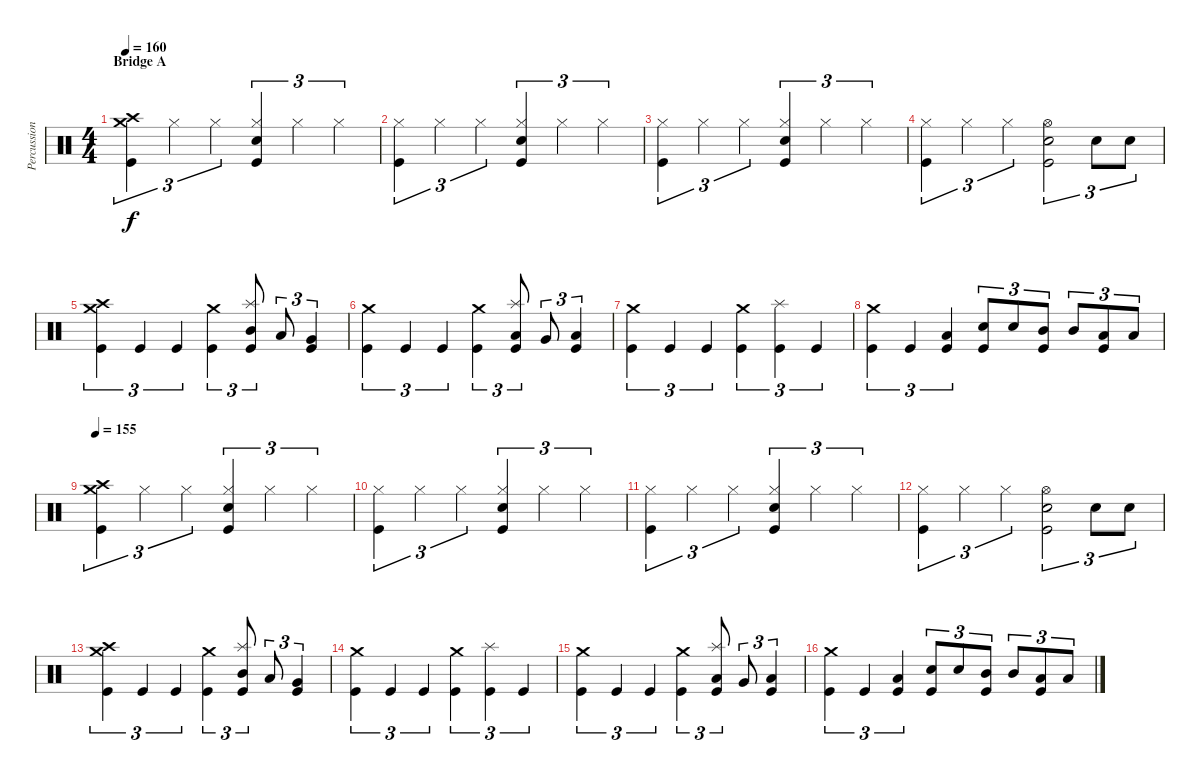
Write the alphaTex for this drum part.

\track ("Percussion" "Percussion") {instrument percussion}
\staff {score}
\articulation defaults
\ts (4 4)
\section ("" "Bridge A")
\tempo 160
\clef neutral
\ks c
("Crash high (hit)" "Crash medium (hit)" "Kick (hit)").4{tu (3 2) dy f} "Hi-Hat (closed)".4{tu (3 2)} "Hi-Hat (closed)".4{tu (3 2)} ("Hi-Hat (closed)" "Electric Snare (hit)" "Kick (hit)").4{tu (3 2)} "Hi-Hat (closed)".4{tu (3 2)} "Hi-Hat (closed)".4{tu (3 2)} |
("Hi-Hat (closed)" "Kick (hit)").4{tu (3 2)} "Hi-Hat (closed)".4{tu (3 2)} "Hi-Hat (closed)".4{tu (3 2)} ("Hi-Hat (closed)" "Electric Snare (hit)" "Kick (hit)").4{tu (3 2)} "Hi-Hat (closed)".4{tu (3 2)} "Hi-Hat (closed)".4{tu (3 2)} |
("Hi-Hat (closed)" "Kick (hit)").4{tu (3 2)} "Hi-Hat (closed)".4{tu (3 2)} "Hi-Hat (closed)".4{tu (3 2)} ("Hi-Hat (closed)" "Electric Snare (hit)" "Kick (hit)").4{tu (3 2)} "Hi-Hat (closed)".4{tu (3 2)} "Hi-Hat (closed)".4{tu (3 2)} |
("Hi-Hat (closed)" "Kick (hit)").4{tu (3 2)} "Hi-Hat (closed)".4{tu (3 2)} "Hi-Hat (closed)".4{tu (3 2)} ("Hi-Hat (open)" "Electric Snare (hit)" "Kick (hit)").2{tu (3 2)} "Electric Snare (hit)".8{tu (3 2)} "Electric Snare (hit)".8{tu (3 2)} |
("Crash high (hit)" "Crash medium (hit)" "Kick (hit)").4{tu (3 2)} "Kick (hit)".4{tu (3 2)} "Kick (hit)".4{tu (3 2)} ("Crash medium (hit)" "Kick (hit)").4{tu (3 2)} ("Splash (hit)" "Mid Tom (hit)" "Kick (hit)").8{tu (3 2)} "Low Tom (hit)".8{tu (3 2)} ("Very Low Tom (hit)" "Kick (hit)").4{tu (3 2)} |
("Crash medium (hit)" "Kick (hit)").4{tu (3 2)} "Kick (hit)".4{tu (3 2)} "Kick (hit)".4{tu (3 2)} ("Crash medium (hit)" "Kick (hit)").4{tu (3 2)} ("Splash (hit)" "Low Tom (hit)" "Kick (hit)").8{tu (3 2)} "Very Low Tom (hit)".8{tu (3 2)} ("Low Floor Tom (hit)" "Kick (hit)").4{tu (3 2)} |
("Crash medium (hit)" "Kick (hit)").4{tu (3 2)} "Kick (hit)".4{tu (3 2)} "Kick (hit)".4{tu (3 2)} ("Crash medium (hit)" "Kick (hit)").4{tu (3 2)} ("Splash (hit)" "Kick (hit)").4{tu (3 2)} "Kick (hit)".4{tu (3 2)} |
("Crash medium (hit)" "Kick (hit)").4{tu (3 2)} "Kick (hit)".4{tu (3 2)} ("Low Tom (hit)" "Kick (hit)").4{tu (3 2)} ("Electric Snare (hit)" "Kick (hit)").8{tu (3 2)} "Electric Snare (hit)".8{tu (3 2)} ("Mid Tom (hit)" "Kick (hit)").8{tu (3 2)} "Mid Tom (hit)".8{tu (3 2)} ("Low Tom (hit)" "Kick (hit)").8{tu (3 2)} "Low Tom (hit)".8{tu (3 2)} |
\tempo 155
("Crash high (hit)" "Crash medium (hit)" "Kick (hit)").4{tu (3 2)} "Hi-Hat (closed)".4{tu (3 2)} "Hi-Hat (closed)".4{tu (3 2)} ("Hi-Hat (closed)" "Electric Snare (hit)" "Kick (hit)").4{tu (3 2)} "Hi-Hat (closed)".4{tu (3 2)} "Hi-Hat (closed)".4{tu (3 2)} |
("Hi-Hat (closed)" "Kick (hit)").4{tu (3 2)} "Hi-Hat (closed)".4{tu (3 2)} "Hi-Hat (closed)".4{tu (3 2)} ("Hi-Hat (closed)" "Electric Snare (hit)" "Kick (hit)").4{tu (3 2)} "Hi-Hat (closed)".4{tu (3 2)} "Hi-Hat (closed)".4{tu (3 2)} |
("Hi-Hat (closed)" "Kick (hit)").4{tu (3 2)} "Hi-Hat (closed)".4{tu (3 2)} "Hi-Hat (closed)".4{tu (3 2)} ("Hi-Hat (closed)" "Electric Snare (hit)" "Kick (hit)").4{tu (3 2)} "Hi-Hat (closed)".4{tu (3 2)} "Hi-Hat (closed)".4{tu (3 2)} |
("Hi-Hat (closed)" "Kick (hit)").4{tu (3 2)} "Hi-Hat (closed)".4{tu (3 2)} "Hi-Hat (closed)".4{tu (3 2)} ("Hi-Hat (open)" "Electric Snare (hit)" "Kick (hit)").2{tu (3 2)} "Electric Snare (hit)".8{tu (3 2)} "Electric Snare (hit)".8{tu (3 2)} |
("Crash high (hit)" "Crash medium (hit)" "Kick (hit)").4{tu (3 2)} "Kick (hit)".4{tu (3 2)} "Kick (hit)".4{tu (3 2)} ("Crash medium (hit)" "Kick (hit)").4{tu (3 2)} ("Splash (hit)" "Mid Tom (hit)" "Kick (hit)").8{tu (3 2)} "Low Tom (hit)".8{tu (3 2)} ("Very Low Tom (hit)" "Kick (hit)").4{tu (3 2)} |
("Crash medium (hit)" "Kick (hit)").4{tu (3 2)} "Kick (hit)".4{tu (3 2)} "Kick (hit)".4{tu (3 2)} ("Crash medium (hit)" "Kick (hit)").4{tu (3 2)} ("Splash (hit)" "Kick (hit)").4{tu (3 2)} "Kick (hit)".4{tu (3 2)} |
("Crash medium (hit)" "Kick (hit)").4{tu (3 2)} "Kick (hit)".4{tu (3 2)} "Kick (hit)".4{tu (3 2)} ("Crash medium (hit)" "Kick (hit)").4{tu (3 2)} ("Splash (hit)" "Low Tom (hit)" "Kick (hit)").8{tu (3 2)} "Very Low Tom (hit)".8{tu (3 2)} ("Low Floor Tom (hit)" "Kick (hit)").4{tu (3 2)} |
("Crash medium (hit)" "Kick (hit)").4{tu (3 2)} "Kick (hit)".4{tu (3 2)} ("Low Tom (hit)" "Kick (hit)").4{tu (3 2)} ("Electric Snare (hit)" "Kick (hit)").8{tu (3 2)} "Electric Snare (hit)".8{tu (3 2)} ("Mid Tom (hit)" "Kick (hit)").8{tu (3 2)} "Mid Tom (hit)".8{tu (3 2)} ("Low Tom (hit)" "Kick (hit)").8{tu (3 2)} "Low Tom (hit)".8{tu (3 2)}
